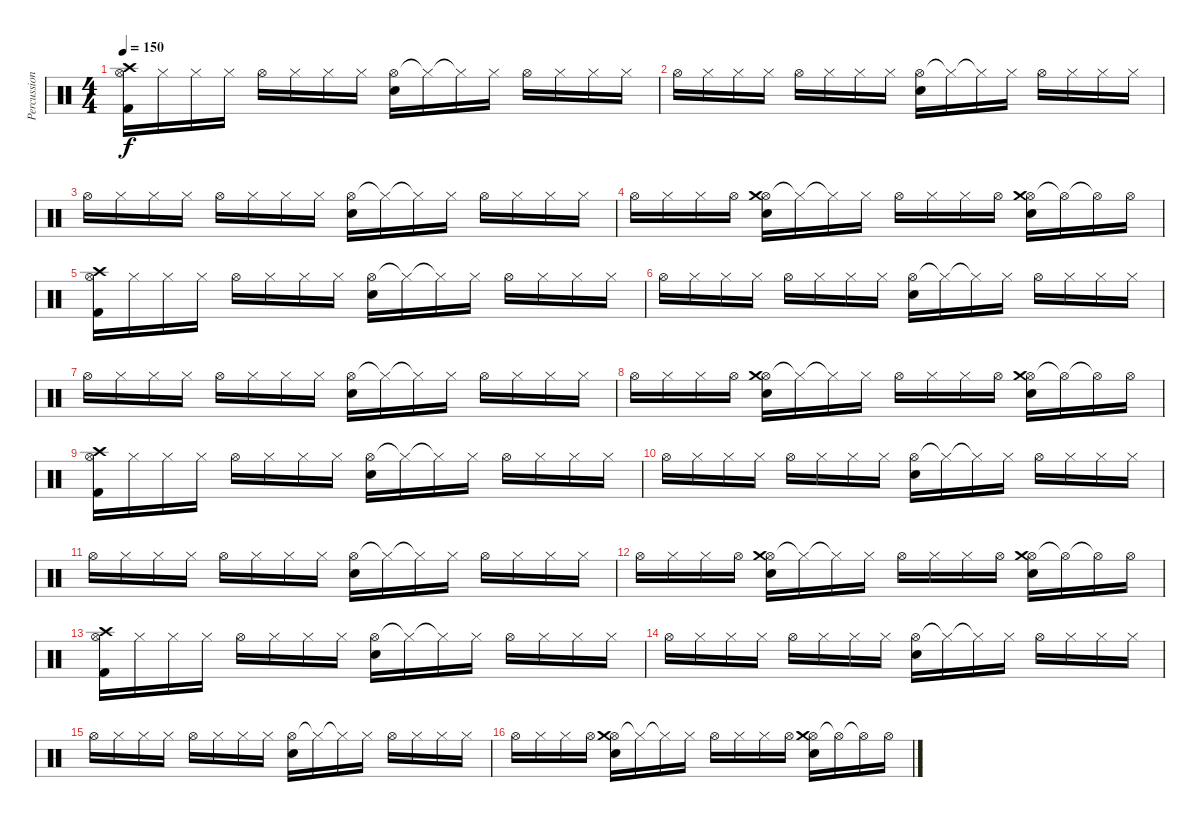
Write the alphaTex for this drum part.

\track ("Percussion" "Percussion") {instrument percussion}
\staff {score}
\articulation defaults
\ts (4 4)
\tempo 150
\clef neutral
\ks c
("Hi-Hat (open)" "Kick (hit) 2" "Crash high (hit)").16{dy f} "Hi-Hat (closed)".16 "Hi-Hat (closed)".16 "Hi-Hat (closed)".16 "Hi-Hat (open)".16 "Hi-Hat (closed)".16 "Hi-Hat (closed)".16 "Hi-Hat (closed)".16 ("Hi-Hat (open)" "Electric Snare (hit)").16 "Hi-Hat (closed)"{t}.16 "Hi-Hat (closed)"{t}.16 "Hi-Hat (closed)".16 "Hi-Hat (open)".16 "Hi-Hat (closed)".16 "Hi-Hat (closed)".16 "Hi-Hat (closed)".16 |
"Hi-Hat (open)".16 "Hi-Hat (closed)".16 "Hi-Hat (closed)".16 "Hi-Hat (closed)".16 "Hi-Hat (open)".16 "Hi-Hat (closed)".16 "Hi-Hat (closed)".16 "Hi-Hat (closed)".16 ("Hi-Hat (open)" "Electric Snare (hit)").16 "Hi-Hat (closed)"{t}.16 "Hi-Hat (closed)"{t}.16 "Hi-Hat (closed)".16 "Hi-Hat (open)".16 "Hi-Hat (closed)".16 "Hi-Hat (closed)".16 "Hi-Hat (closed)".16 |
"Hi-Hat (open)".16 "Hi-Hat (closed)".16 "Hi-Hat (closed)".16 "Hi-Hat (closed)".16 "Hi-Hat (open)".16 "Hi-Hat (closed)".16 "Hi-Hat (closed)".16 "Hi-Hat (closed)".16 ("Hi-Hat (open)" "Electric Snare (hit)").16 "Hi-Hat (closed)"{t}.16 "Hi-Hat (closed)"{t}.16 "Hi-Hat (closed)".16 "Hi-Hat (open)".16 "Hi-Hat (closed)".16 "Hi-Hat (closed)".16 "Hi-Hat (closed)".16 |
"Hi-Hat (open)".16 "Hi-Hat (closed)".16 "Hi-Hat (closed)".16 "Hi-Hat (open)".16 ("Hi-Hat (open)" "Electric Snare (hit)" "Crash medium (hit)").16 "Hi-Hat (closed)"{t}.16 "Hi-Hat (closed)"{t}.16 "Hi-Hat (closed)".16 "Hi-Hat (open)".16 "Hi-Hat (closed)".16 "Hi-Hat (closed)".16 "Hi-Hat (open)".16 ("Hi-Hat (open)" "Electric Snare (hit)" "Crash medium (hit)").16 "Hi-Hat (open)"{t}.16 "Hi-Hat (open)"{t}.16 "Hi-Hat (open)".16 |
("Hi-Hat (open)" "Kick (hit) 2" "Crash high (hit)").16 "Hi-Hat (closed)".16 "Hi-Hat (closed)".16 "Hi-Hat (closed)".16 "Hi-Hat (open)".16 "Hi-Hat (closed)".16 "Hi-Hat (closed)".16 "Hi-Hat (closed)".16 ("Hi-Hat (open)" "Electric Snare (hit)").16 "Hi-Hat (closed)"{t}.16 "Hi-Hat (closed)"{t}.16 "Hi-Hat (closed)".16 "Hi-Hat (open)".16 "Hi-Hat (closed)".16 "Hi-Hat (closed)".16 "Hi-Hat (closed)".16 |
"Hi-Hat (open)".16 "Hi-Hat (closed)".16 "Hi-Hat (closed)".16 "Hi-Hat (closed)".16 "Hi-Hat (open)".16 "Hi-Hat (closed)".16 "Hi-Hat (closed)".16 "Hi-Hat (closed)".16 ("Hi-Hat (open)" "Electric Snare (hit)").16 "Hi-Hat (closed)"{t}.16 "Hi-Hat (closed)"{t}.16 "Hi-Hat (closed)".16 "Hi-Hat (open)".16 "Hi-Hat (closed)".16 "Hi-Hat (closed)".16 "Hi-Hat (closed)".16 |
"Hi-Hat (open)".16 "Hi-Hat (closed)".16 "Hi-Hat (closed)".16 "Hi-Hat (closed)".16 "Hi-Hat (open)".16 "Hi-Hat (closed)".16 "Hi-Hat (closed)".16 "Hi-Hat (closed)".16 ("Hi-Hat (open)" "Electric Snare (hit)").16 "Hi-Hat (closed)"{t}.16 "Hi-Hat (closed)"{t}.16 "Hi-Hat (closed)".16 "Hi-Hat (open)".16 "Hi-Hat (closed)".16 "Hi-Hat (closed)".16 "Hi-Hat (closed)".16 |
"Hi-Hat (open)".16 "Hi-Hat (closed)".16 "Hi-Hat (closed)".16 "Hi-Hat (open)".16 ("Hi-Hat (open)" "Electric Snare (hit)" "Crash medium (hit)").16 "Hi-Hat (closed)"{t}.16 "Hi-Hat (closed)"{t}.16 "Hi-Hat (closed)".16 "Hi-Hat (open)".16 "Hi-Hat (closed)".16 "Hi-Hat (closed)".16 "Hi-Hat (open)".16 ("Hi-Hat (open)" "Electric Snare (hit)" "Crash medium (hit)").16 "Hi-Hat (open)"{t}.16 "Hi-Hat (open)"{t}.16 "Hi-Hat (open)".16 |
("Hi-Hat (open)" "Kick (hit) 2" "Crash high (hit)").16 "Hi-Hat (closed)".16 "Hi-Hat (closed)".16 "Hi-Hat (closed)".16 "Hi-Hat (open)".16 "Hi-Hat (closed)".16 "Hi-Hat (closed)".16 "Hi-Hat (closed)".16 ("Hi-Hat (open)" "Electric Snare (hit)").16 "Hi-Hat (closed)"{t}.16 "Hi-Hat (closed)"{t}.16 "Hi-Hat (closed)".16 "Hi-Hat (open)".16 "Hi-Hat (closed)".16 "Hi-Hat (closed)".16 "Hi-Hat (closed)".16 |
"Hi-Hat (open)".16 "Hi-Hat (closed)".16 "Hi-Hat (closed)".16 "Hi-Hat (closed)".16 "Hi-Hat (open)".16 "Hi-Hat (closed)".16 "Hi-Hat (closed)".16 "Hi-Hat (closed)".16 ("Hi-Hat (open)" "Electric Snare (hit)").16 "Hi-Hat (closed)"{t}.16 "Hi-Hat (closed)"{t}.16 "Hi-Hat (closed)".16 "Hi-Hat (open)".16 "Hi-Hat (closed)".16 "Hi-Hat (closed)".16 "Hi-Hat (closed)".16 |
"Hi-Hat (open)".16 "Hi-Hat (closed)".16 "Hi-Hat (closed)".16 "Hi-Hat (closed)".16 "Hi-Hat (open)".16 "Hi-Hat (closed)".16 "Hi-Hat (closed)".16 "Hi-Hat (closed)".16 ("Hi-Hat (open)" "Electric Snare (hit)").16 "Hi-Hat (closed)"{t}.16 "Hi-Hat (closed)"{t}.16 "Hi-Hat (closed)".16 "Hi-Hat (open)".16 "Hi-Hat (closed)".16 "Hi-Hat (closed)".16 "Hi-Hat (closed)".16 |
"Hi-Hat (open)".16 "Hi-Hat (closed)".16 "Hi-Hat (closed)".16 "Hi-Hat (open)".16 ("Hi-Hat (open)" "Electric Snare (hit)" "Crash medium (hit)").16 "Hi-Hat (closed)"{t}.16 "Hi-Hat (closed)"{t}.16 "Hi-Hat (closed)".16 "Hi-Hat (open)".16 "Hi-Hat (closed)".16 "Hi-Hat (closed)".16 "Hi-Hat (open)".16 ("Hi-Hat (open)" "Electric Snare (hit)" "Crash medium (hit)").16 "Hi-Hat (open)"{t}.16 "Hi-Hat (open)"{t}.16 "Hi-Hat (open)".16 |
("Hi-Hat (open)" "Kick (hit) 2" "Crash high (hit)").16 "Hi-Hat (closed)".16 "Hi-Hat (closed)".16 "Hi-Hat (closed)".16 "Hi-Hat (open)".16 "Hi-Hat (closed)".16 "Hi-Hat (closed)".16 "Hi-Hat (closed)".16 ("Hi-Hat (open)" "Electric Snare (hit)").16 "Hi-Hat (closed)"{t}.16 "Hi-Hat (closed)"{t}.16 "Hi-Hat (closed)".16 "Hi-Hat (open)".16 "Hi-Hat (closed)".16 "Hi-Hat (closed)".16 "Hi-Hat (closed)".16 |
"Hi-Hat (open)".16 "Hi-Hat (closed)".16 "Hi-Hat (closed)".16 "Hi-Hat (closed)".16 "Hi-Hat (open)".16 "Hi-Hat (closed)".16 "Hi-Hat (closed)".16 "Hi-Hat (closed)".16 ("Hi-Hat (open)" "Electric Snare (hit)").16 "Hi-Hat (closed)"{t}.16 "Hi-Hat (closed)"{t}.16 "Hi-Hat (closed)".16 "Hi-Hat (open)".16 "Hi-Hat (closed)".16 "Hi-Hat (closed)".16 "Hi-Hat (closed)".16 |
"Hi-Hat (open)".16 "Hi-Hat (closed)".16 "Hi-Hat (closed)".16 "Hi-Hat (closed)".16 "Hi-Hat (open)".16 "Hi-Hat (closed)".16 "Hi-Hat (closed)".16 "Hi-Hat (closed)".16 ("Hi-Hat (open)" "Electric Snare (hit)").16 "Hi-Hat (closed)"{t}.16 "Hi-Hat (closed)"{t}.16 "Hi-Hat (closed)".16 "Hi-Hat (open)".16 "Hi-Hat (closed)".16 "Hi-Hat (closed)".16 "Hi-Hat (closed)".16 |
"Hi-Hat (open)".16 "Hi-Hat (closed)".16 "Hi-Hat (closed)".16 "Hi-Hat (open)".16 ("Hi-Hat (open)" "Electric Snare (hit)" "Crash medium (hit)").16 "Hi-Hat (closed)"{t}.16 "Hi-Hat (closed)"{t}.16 "Hi-Hat (closed)".16 "Hi-Hat (open)".16 "Hi-Hat (closed)".16 "Hi-Hat (closed)".16 "Hi-Hat (open)".16 ("Hi-Hat (open)" "Electric Snare (hit)" "Crash medium (hit)").16 "Hi-Hat (open)"{t}.16 "Hi-Hat (open)"{t}.16 "Hi-Hat (open)".16
